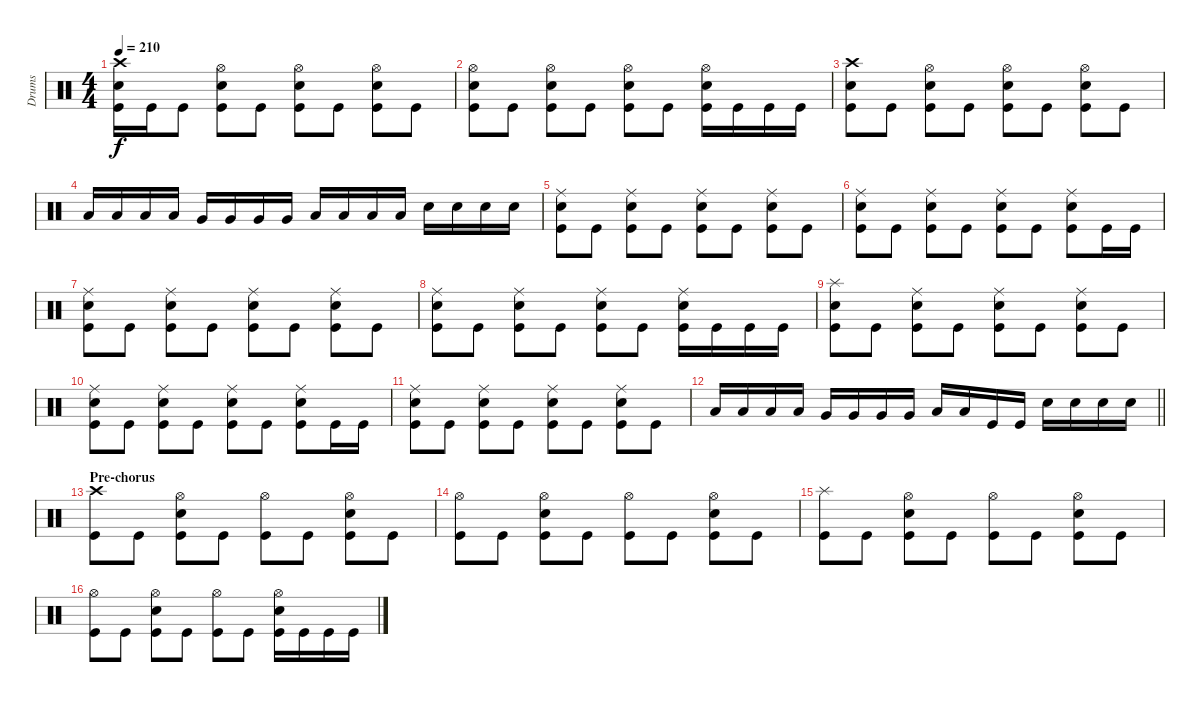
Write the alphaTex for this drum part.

\track ("Drums" "Drums") {instrument percussion}
\staff {score}
\articulation defaults
\ts (4 4)
\tempo 210
\clef neutral
\ks c
("Crash high (hit)" "Electric Snare (hit)" "Kick (hit)").16{dy f} "Kick (hit)".16 "Kick (hit)".8 ("Hi-Hat (open)" "Electric Snare (hit)" "Kick (hit)").8 "Kick (hit)".8 ("Hi-Hat (open)" "Electric Snare (hit)" "Kick (hit)").8 "Kick (hit)".8 ("Hi-Hat (open)" "Electric Snare (hit)" "Kick (hit)").8 "Kick (hit)".8 |
("Hi-Hat (open)" "Electric Snare (hit)" "Kick (hit)").8 "Kick (hit)".8 ("Hi-Hat (open)" "Electric Snare (hit)" "Kick (hit)").8 "Kick (hit)".8 ("Hi-Hat (open)" "Electric Snare (hit)" "Kick (hit)").8 "Kick (hit)".8 ("Hi-Hat (open)" "Electric Snare (hit)" "Kick (hit)").16 "Kick (hit)".16 "Kick (hit)".16 "Kick (hit)".16 |
("Crash high (hit)" "Electric Snare (hit)" "Kick (hit)").8 "Kick (hit)".8 ("Hi-Hat (open)" "Electric Snare (hit)" "Kick (hit)").8 "Kick (hit)".8 ("Hi-Hat (open)" "Electric Snare (hit)" "Kick (hit)").8 "Kick (hit)".8 ("Hi-Hat (open)" "Electric Snare (hit)" "Kick (hit)").8 "Kick (hit)".8 |
"Low Tom (hit)".16 "Low Tom (hit)".16 "Low Tom (hit)".16 "Low Tom (hit)".16 "Very Low Tom (hit)".16 "Very Low Tom (hit)".16 "Very Low Tom (hit)".16 "Very Low Tom (hit)".16 "Low Floor Tom (hit)".16 "Low Floor Tom (hit)".16 "Low Floor Tom (hit)".16 "Low Floor Tom (hit)".16 "Snare (hit) 2".16 "Snare (hit) 2".16 "Snare (hit) 2".16 "Snare (hit) 2".16 |
("Ride (middle)" "Electric Snare (hit)" "Kick (hit)").8 "Kick (hit)".8 ("Ride (middle)" "Electric Snare (hit)" "Kick (hit)").8 "Kick (hit)".8 ("Ride (middle)" "Electric Snare (hit)" "Kick (hit)").8 "Kick (hit)".8 ("Ride (middle)" "Electric Snare (hit)" "Kick (hit)").8 "Kick (hit)".8 |
("Ride (middle)" "Electric Snare (hit)" "Kick (hit)").8 "Kick (hit)".8 ("Ride (middle)" "Electric Snare (hit)" "Kick (hit)").8 "Kick (hit)".8 ("Ride (middle)" "Electric Snare (hit)" "Kick (hit)").8 "Kick (hit)".8 ("Ride (middle)" "Electric Snare (hit)" "Kick (hit)").8 "Kick (hit)".16 "Kick (hit)".16 |
("Ride (middle)" "Electric Snare (hit)" "Kick (hit)").8 "Kick (hit)".8 ("Ride (middle)" "Electric Snare (hit)" "Kick (hit)").8 "Kick (hit)".8 ("Ride (middle)" "Electric Snare (hit)" "Kick (hit)").8 "Kick (hit)".8 ("Ride (middle)" "Electric Snare (hit)" "Kick (hit)").8 "Kick (hit)".8 |
("Ride (middle)" "Electric Snare (hit)" "Kick (hit)").8 "Kick (hit)".8 ("Ride (middle)" "Electric Snare (hit)" "Kick (hit)").8 "Kick (hit)".8 ("Ride (middle)" "Electric Snare (hit)" "Kick (hit)").8 "Kick (hit)".8 ("Ride (middle)" "Electric Snare (hit)" "Kick (hit)").16 "Kick (hit)".16 "Kick (hit)".16 "Kick (hit)".16 |
("Splash (hit)" "Electric Snare (hit)" "Kick (hit)").8 "Kick (hit)".8 ("Ride (middle)" "Electric Snare (hit)" "Kick (hit)").8 "Kick (hit)".8 ("Ride (middle)" "Electric Snare (hit)" "Kick (hit)").8 "Kick (hit)".8 ("Ride (middle)" "Electric Snare (hit)" "Kick (hit)").8 "Kick (hit)".8 |
("Ride (middle)" "Electric Snare (hit)" "Kick (hit)").8 "Kick (hit)".8 ("Ride (middle)" "Electric Snare (hit)" "Kick (hit)").8 "Kick (hit)".8 ("Ride (middle)" "Electric Snare (hit)" "Kick (hit)").8 "Kick (hit)".8 ("Ride (middle)" "Electric Snare (hit)" "Kick (hit)").8 "Kick (hit)".16 "Kick (hit)".16 |
("Ride (middle)" "Electric Snare (hit)" "Kick (hit)").8 "Kick (hit)".8 ("Ride (middle)" "Electric Snare (hit)" "Kick (hit)").8 "Kick (hit)".8 ("Ride (middle)" "Electric Snare (hit)" "Kick (hit)").8 "Kick (hit)".8 ("Ride (middle)" "Electric Snare (hit)" "Kick (hit)").8 "Kick (hit)".8 |
\barLineRight lightlight "Low Tom (hit)".16 "Low Tom (hit)".16 "Low Tom (hit)".16 "Low Tom (hit)".16 "Very Low Tom (hit)".16 "Very Low Tom (hit)".16 "Very Low Tom (hit)".16 "Very Low Tom (hit)".16 "Low Floor Tom (hit)".16 "Low Floor Tom (hit)".16 "Kick (hit)".16 "Kick (hit)".16 "Electric Snare (hit)".16 "Electric Snare (hit)".16 "Electric Snare (hit)".16 "Electric Snare (hit)".16
|
\section ("" "Pre-chorus")
("Crash high (hit)" "Kick (hit)").8 "Kick (hit)".8 ("Hi-Hat (open)" "Electric Snare (hit)" "Kick (hit)").8 "Kick (hit)".8 ("Hi-Hat (open)" "Kick (hit)").8 "Kick (hit)".8 ("Hi-Hat (open)" "Electric Snare (hit)" "Kick (hit)").8 "Kick (hit)".8 |
("Hi-Hat (open)" "Kick (hit)").8 "Kick (hit)".8 ("Hi-Hat (open)" "Electric Snare (hit)" "Kick (hit)").8 "Kick (hit)".8 ("Hi-Hat (open)" "Kick (hit)").8 "Kick (hit)".8 ("Hi-Hat (open)" "Electric Snare (hit)" "Kick (hit)").8 "Kick (hit)".8 |
("Splash (hit)" "Kick (hit)").8 "Kick (hit)".8 ("Hi-Hat (open)" "Electric Snare (hit)" "Kick (hit)").8 "Kick (hit)".8 ("Hi-Hat (open)" "Kick (hit)").8 "Kick (hit)".8 ("Hi-Hat (open)" "Electric Snare (hit)" "Kick (hit)").8 "Kick (hit)".8 |
("Hi-Hat (open)" "Kick (hit)").8 "Kick (hit)".8 ("Hi-Hat (open)" "Electric Snare (hit)" "Kick (hit)").8 "Kick (hit)".8 ("Hi-Hat (open)" "Kick (hit)").8 "Kick (hit)".8 ("Hi-Hat (open)" "Electric Snare (hit)" "Kick (hit)").16 "Kick (hit)".16 "Kick (hit)".16 "Kick (hit)".16
